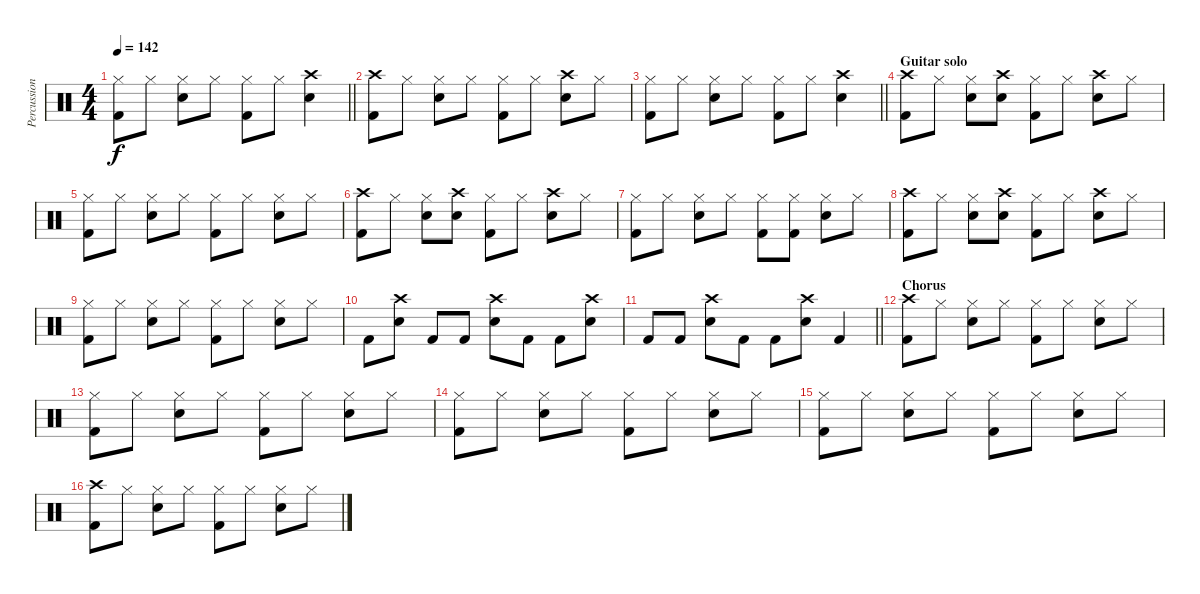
\track ("Percussion" "Percussion") {instrument percussion}
\staff {score}
\articulation defaults
\ts (4 4)
\tempo 142
\clef neutral
\barLineRight lightlight
\ks c
("Hi-Hat (closed)" "Kick (hit) 2").8{dy f} "Hi-Hat (closed)".8 ("Hi-Hat (closed)" "Electric Snare (hit)").8 "Hi-Hat (closed)".8 ("Hi-Hat (closed)" "Kick (hit) 2").8 "Hi-Hat (closed)".8 ("Crash high (hit)" "Electric Snare (hit)").4 |
("Crash high (hit)" "Kick (hit) 2").8 "Hi-Hat (closed)".8 ("Hi-Hat (closed)" "Electric Snare (hit)").8 "Hi-Hat (closed)".8 ("Hi-Hat (closed)" "Kick (hit) 2").8 "Hi-Hat (closed)".8 ("Crash high (hit)" "Electric Snare (hit)").8 "Hi-Hat (closed)".8 |
\barLineRight lightlight
("Hi-Hat (closed)" "Kick (hit) 2").8 "Hi-Hat (closed)".8 ("Hi-Hat (closed)" "Electric Snare (hit)").8 "Hi-Hat (closed)".8 ("Hi-Hat (closed)" "Kick (hit) 2").8 "Hi-Hat (closed)".8 ("Crash high (hit)" "Electric Snare (hit)").4 |
\section ("" "Guitar solo")
("Crash high (hit)" "Kick (hit) 2").8 "Hi-Hat (closed)".8 ("Hi-Hat (closed)" "Electric Snare (hit)").8 ("Crash high (hit)" "Electric Snare (hit)").8 ("Hi-Hat (closed)" "Kick (hit) 2").8 "Hi-Hat (closed)".8 ("Crash high (hit)" "Electric Snare (hit)").8 "Hi-Hat (closed)".8 |
("Hi-Hat (closed)" "Kick (hit) 2").8 "Hi-Hat (closed)".8 ("Hi-Hat (closed)" "Electric Snare (hit)").8 "Hi-Hat (closed)".8 ("Hi-Hat (closed)" "Kick (hit) 2").8 "Hi-Hat (closed)".8 ("Hi-Hat (closed)" "Electric Snare (hit)").8 "Hi-Hat (closed)".8 |
("Crash high (hit)" "Kick (hit) 2").8 "Hi-Hat (closed)".8 ("Hi-Hat (closed)" "Electric Snare (hit)").8 ("Crash high (hit)" "Electric Snare (hit)").8 ("Hi-Hat (closed)" "Kick (hit) 2").8 "Hi-Hat (closed)".8 ("Crash high (hit)" "Electric Snare (hit)").8 "Hi-Hat (closed)".8 |
("Hi-Hat (closed)" "Kick (hit) 2").8 "Hi-Hat (closed)".8 ("Hi-Hat (closed)" "Electric Snare (hit)").8 "Hi-Hat (closed)".8 ("Hi-Hat (closed)" "Kick (hit) 2").8 ("Hi-Hat (closed)" "Kick (hit) 2").8 ("Hi-Hat (closed)" "Electric Snare (hit)").8 "Hi-Hat (closed)".8 |
("Crash high (hit)" "Kick (hit) 2").8 "Hi-Hat (closed)".8 ("Hi-Hat (closed)" "Electric Snare (hit)").8 ("Crash high (hit)" "Electric Snare (hit)").8 ("Hi-Hat (closed)" "Kick (hit) 2").8 "Hi-Hat (closed)".8 ("Crash high (hit)" "Electric Snare (hit)").8 "Hi-Hat (closed)".8 |
("Hi-Hat (closed)" "Kick (hit) 2").8 "Hi-Hat (closed)".8 ("Hi-Hat (closed)" "Electric Snare (hit)").8 "Hi-Hat (closed)".8 ("Hi-Hat (closed)" "Kick (hit) 2").8 "Hi-Hat (closed)".8 ("Hi-Hat (closed)" "Electric Snare (hit)").8 "Hi-Hat (closed)".8 |
"Kick (hit) 2".8 ("Crash high (hit)" "Electric Snare (hit)").8 "Kick (hit) 2".8 "Kick (hit) 2".8 ("Crash high (hit)" "Electric Snare (hit)").8 "Kick (hit) 2".8 "Kick (hit) 2".8 ("Crash high (hit)" "Electric Snare (hit)").8 |
\barLineRight lightlight "Kick (hit) 2".8 "Kick (hit) 2".8
("Crash high (hit)" "Electric Snare (hit)").8 "Kick (hit) 2".8 "Kick (hit) 2".8 ("Crash high (hit)" "Electric Snare (hit)").8 "Kick (hit) 2".4 |
\section ("" "Chorus")
("Crash high (hit)" "Kick (hit) 2").8 "Hi-Hat (closed)".8 ("Hi-Hat (closed)" "Electric Snare (hit)").8 "Hi-Hat (closed)".8 ("Hi-Hat (closed)" "Kick (hit) 2").8 "Hi-Hat (closed)".8 ("Hi-Hat (closed)" "Electric Snare (hit)").8 "Hi-Hat (closed)".8 |
("Hi-Hat (closed)" "Kick (hit) 2").8 "Hi-Hat (closed)".8 ("Hi-Hat (closed)" "Electric Snare (hit)").8 "Hi-Hat (closed)".8 ("Hi-Hat (closed)" "Kick (hit) 2").8 "Hi-Hat (closed)".8 ("Hi-Hat (closed)" "Electric Snare (hit)").8 "Hi-Hat (closed)".8 |
("Hi-Hat (closed)" "Kick (hit) 2").8 "Hi-Hat (closed)".8 ("Hi-Hat (closed)" "Electric Snare (hit)").8 "Hi-Hat (closed)".8 ("Hi-Hat (closed)" "Kick (hit) 2").8 "Hi-Hat (closed)".8 ("Hi-Hat (closed)" "Electric Snare (hit)").8 "Hi-Hat (closed)".8 |
("Hi-Hat (closed)" "Kick (hit) 2").8 "Hi-Hat (closed)".8 ("Hi-Hat (closed)" "Electric Snare (hit)").8 "Hi-Hat (closed)".8 ("Hi-Hat (closed)" "Kick (hit) 2").8 "Hi-Hat (closed)".8 ("Hi-Hat (closed)" "Electric Snare (hit)").8 "Hi-Hat (closed)".8 |
("Crash high (hit)" "Kick (hit) 2").8 "Hi-Hat (closed)".8 ("Hi-Hat (closed)" "Electric Snare (hit)").8 "Hi-Hat (closed)".8 ("Hi-Hat (closed)" "Kick (hit) 2").8 "Hi-Hat (closed)".8 ("Hi-Hat (closed)" "Electric Snare (hit)").8 "Hi-Hat (closed)".8
